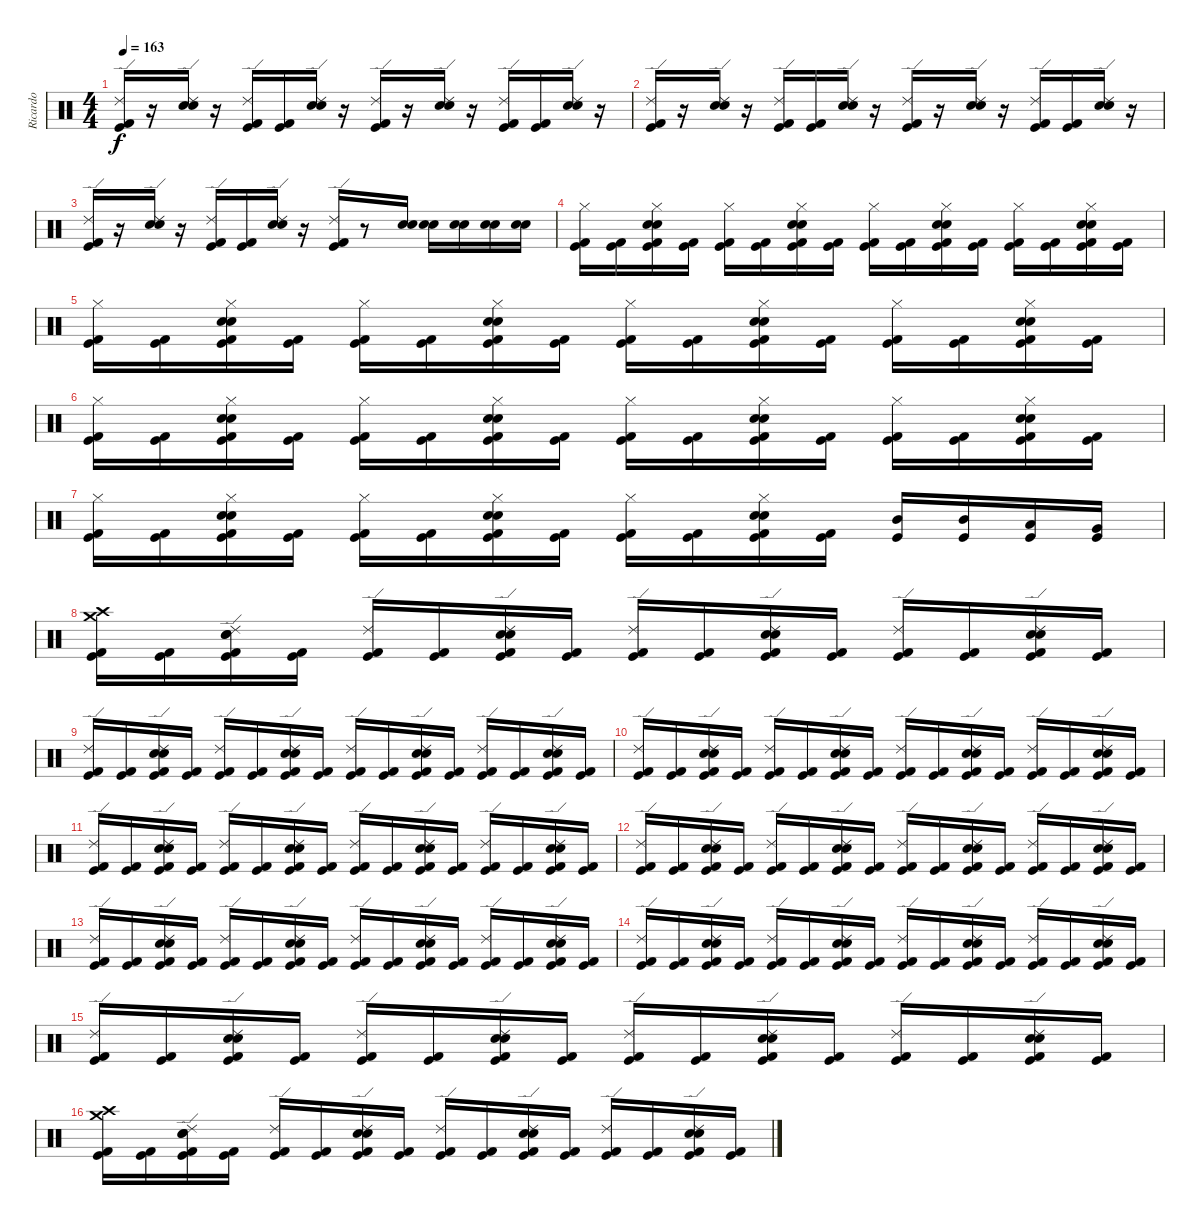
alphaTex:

\track ("Ricardo" "Ricardo") {instrument percussion}
\staff {score}
\articulation defaults
\ts (4 4)
\tempo 163
\clef neutral
\ks c
("Ride (edge) 2" "Kick (hit) 2" "Kick (hit)").16{dy f} r.16 ("Ride (edge) 2" "Electric Snare (hit)" "Snare (hit) 2").16 r.16 ("Ride (edge) 2" "Kick (hit)" "Kick (hit) 2").16 ("Kick (hit)" "Kick (hit) 2").16 ("Ride (edge) 2" "Electric Snare (hit)" "Snare (hit) 2").16 r.16 ("Ride (edge) 2" "Kick (hit)" "Kick (hit) 2").16 r.16 ("Ride (edge) 2" "Electric Snare (hit)" "Snare (hit) 2").16 r.16 ("Ride (edge) 2" "Kick (hit) 2" "Kick (hit)").16 ("Kick (hit) 2" "Kick (hit)").16 ("Ride (edge) 2" "Electric Snare (hit)" "Snare (hit) 2").16 r.16 |
("Ride (edge) 2" "Kick (hit) 2" "Kick (hit)").16 r.16 ("Ride (edge) 2" "Electric Snare (hit)" "Snare (hit) 2").16 r.16 ("Ride (edge) 2" "Kick (hit)" "Kick (hit) 2").16 ("Kick (hit)" "Kick (hit) 2").16 ("Ride (edge) 2" "Electric Snare (hit)" "Snare (hit) 2").16 r.16 ("Ride (edge) 2" "Kick (hit)" "Kick (hit) 2").16 r.16 ("Ride (edge) 2" "Electric Snare (hit)" "Snare (hit) 2").16 r.16 ("Ride (edge) 2" "Kick (hit) 2" "Kick (hit)").16 ("Kick (hit) 2" "Kick (hit)").16 ("Ride (edge) 2" "Electric Snare (hit)" "Snare (hit) 2").16 r.16 |
("Ride (edge) 2" "Kick (hit) 2" "Kick (hit)").16 r.16 ("Ride (edge) 2" "Electric Snare (hit)" "Snare (hit) 2").16 r.16 ("Ride (edge) 2" "Kick (hit)" "Kick (hit) 2").16 ("Kick (hit)" "Kick (hit) 2").16 ("Ride (edge) 2" "Electric Snare (hit)" "Snare (hit) 2").16 r.16 ("Ride (edge) 2" "Kick (hit)" "Kick (hit) 2").16 r.8 ("Electric Snare (hit)" "Snare (hit) 2").16 ("Snare (hit) 2" "Electric Snare (hit)").16 ("Electric Snare (hit)" "Snare (hit) 2").16 ("Electric Snare (hit)" "Snare (hit) 2").16 ("Electric Snare (hit)" "Snare (hit) 2").16 |
("Hi-Hat (closed)" "Kick (hit) 2" "Kick (hit)").16 ("Kick (hit) 2" "Kick (hit)").16 ("Electric Snare (hit)" "Snare (hit) 2" "Hi-Hat (closed)" "Kick (hit) 2" "Kick (hit)").16 ("Kick (hit) 2" "Kick (hit)").16 ("Hi-Hat (closed)" "Kick (hit) 2" "Kick (hit)").16 ("Kick (hit) 2" "Kick (hit)").16 ("Electric Snare (hit)" "Snare (hit) 2" "Hi-Hat (closed)" "Kick (hit) 2" "Kick (hit)").16 ("Kick (hit) 2" "Kick (hit)").16 ("Hi-Hat (closed)" "Kick (hit) 2" "Kick (hit)").16 ("Kick (hit) 2" "Kick (hit)").16 ("Electric Snare (hit)" "Snare (hit) 2" "Hi-Hat (closed)" "Kick (hit) 2" "Kick (hit)").16 ("Kick (hit) 2" "Kick (hit)").16 ("Hi-Hat (closed)" "Kick (hit) 2" "Kick (hit)").16 ("Kick (hit) 2" "Kick (hit)").16 ("Electric Snare (hit)" "Snare (hit) 2" "Hi-Hat (closed)" "Kick (hit) 2" "Kick (hit)").16 ("Kick (hit) 2" "Kick (hit)").16 |
("Hi-Hat (closed)" "Kick (hit) 2" "Kick (hit)").16 ("Kick (hit) 2" "Kick (hit)").16 ("Electric Snare (hit)" "Snare (hit) 2" "Hi-Hat (closed)" "Kick (hit) 2" "Kick (hit)").16 ("Kick (hit) 2" "Kick (hit)").16 ("Hi-Hat (closed)" "Kick (hit) 2" "Kick (hit)").16 ("Kick (hit) 2" "Kick (hit)").16 ("Electric Snare (hit)" "Snare (hit) 2" "Hi-Hat (closed)" "Kick (hit) 2" "Kick (hit)").16 ("Kick (hit) 2" "Kick (hit)").16 ("Hi-Hat (closed)" "Kick (hit) 2" "Kick (hit)").16 ("Kick (hit) 2" "Kick (hit)").16 ("Electric Snare (hit)" "Snare (hit) 2" "Hi-Hat (closed)" "Kick (hit) 2" "Kick (hit)").16 ("Kick (hit) 2" "Kick (hit)").16 ("Hi-Hat (closed)" "Kick (hit) 2" "Kick (hit)").16 ("Kick (hit) 2" "Kick (hit)").16 ("Electric Snare (hit)" "Snare (hit) 2" "Hi-Hat (closed)" "Kick (hit) 2" "Kick (hit)").16 ("Kick (hit) 2" "Kick (hit)").16 |
("Hi-Hat (closed)" "Kick (hit) 2" "Kick (hit)").16 ("Kick (hit) 2" "Kick (hit)").16 ("Electric Snare (hit)" "Snare (hit) 2" "Hi-Hat (closed)" "Kick (hit) 2" "Kick (hit)").16 ("Kick (hit) 2" "Kick (hit)").16 ("Hi-Hat (closed)" "Kick (hit) 2" "Kick (hit)").16 ("Kick (hit) 2" "Kick (hit)").16 ("Electric Snare (hit)" "Snare (hit) 2" "Hi-Hat (closed)" "Kick (hit) 2" "Kick (hit)").16 ("Kick (hit) 2" "Kick (hit)").16 ("Hi-Hat (closed)" "Kick (hit) 2" "Kick (hit)").16 ("Kick (hit) 2" "Kick (hit)").16 ("Electric Snare (hit)" "Snare (hit) 2" "Hi-Hat (closed)" "Kick (hit) 2" "Kick (hit)").16 ("Kick (hit) 2" "Kick (hit)").16 ("Hi-Hat (closed)" "Kick (hit) 2" "Kick (hit)").16 ("Kick (hit) 2" "Kick (hit)").16 ("Electric Snare (hit)" "Snare (hit) 2" "Hi-Hat (closed)" "Kick (hit) 2" "Kick (hit)").16 ("Kick (hit) 2" "Kick (hit)").16 |
("Hi-Hat (closed)" "Kick (hit) 2" "Kick (hit)").16 ("Kick (hit) 2" "Kick (hit)").16 ("Electric Snare (hit)" "Snare (hit) 2" "Hi-Hat (closed)" "Kick (hit) 2" "Kick (hit)").16 ("Kick (hit) 2" "Kick (hit)").16 ("Hi-Hat (closed)" "Kick (hit) 2" "Kick (hit)").16 ("Kick (hit) 2" "Kick (hit)").16 ("Electric Snare (hit)" "Snare (hit) 2" "Hi-Hat (closed)" "Kick (hit) 2" "Kick (hit)").16 ("Kick (hit) 2" "Kick (hit)").16 ("Hi-Hat (closed)" "Kick (hit) 2" "Kick (hit)").16 ("Kick (hit) 2" "Kick (hit)").16 ("Electric Snare (hit)" "Snare (hit) 2" "Hi-Hat (closed)" "Kick (hit) 2" "Kick (hit)").16 ("Kick (hit) 2" "Kick (hit)").16 ("Mid Tom (hit)" "Kick (hit)").16 ("Mid Tom (hit)" "Kick (hit)").16 ("Low Tom (hit)" "Kick (hit)").16 ("Very Low Tom (hit)" "Kick (hit)").16 |
("Crash high (hit)" "Crash medium (hit)" "Kick (hit) 2" "Kick (hit)").16 ("Kick (hit) 2" "Kick (hit)").16 ("Ride (edge) 2" "Electric Snare (hit)" "Snare (hit) 2" "Kick (hit) 2" "Kick (hit)").16 ("Kick (hit) 2" "Kick (hit)").16 ("Ride (edge) 2" "Kick (hit) 2" "Kick (hit)").16 ("Kick (hit) 2" "Kick (hit)").16 ("Ride (edge) 2" "Electric Snare (hit)" "Snare (hit) 2" "Kick (hit) 2" "Kick (hit)").16 ("Kick (hit) 2" "Kick (hit)").16 ("Ride (edge) 2" "Kick (hit) 2" "Kick (hit)").16 ("Kick (hit) 2" "Kick (hit)").16 ("Ride (edge) 2" "Electric Snare (hit)" "Snare (hit) 2" "Kick (hit) 2" "Kick (hit)").16 ("Kick (hit) 2" "Kick (hit)").16 ("Ride (edge) 2" "Kick (hit) 2" "Kick (hit)").16 ("Kick (hit) 2" "Kick (hit)").16 ("Ride (edge) 2" "Electric Snare (hit)" "Snare (hit) 2" "Kick (hit) 2" "Kick (hit)").16 ("Kick (hit) 2" "Kick (hit)").16 |
("Ride (edge) 2" "Kick (hit) 2" "Kick (hit)").16 ("Kick (hit) 2" "Kick (hit)").16 ("Ride (edge) 2" "Electric Snare (hit)" "Snare (hit) 2" "Kick (hit) 2" "Kick (hit)").16 ("Kick (hit) 2" "Kick (hit)").16 ("Ride (edge) 2" "Kick (hit) 2" "Kick (hit)").16 ("Kick (hit) 2" "Kick (hit)").16 ("Ride (edge) 2" "Electric Snare (hit)" "Snare (hit) 2" "Kick (hit) 2" "Kick (hit)").16 ("Kick (hit) 2" "Kick (hit)").16 ("Ride (edge) 2" "Kick (hit) 2" "Kick (hit)").16 ("Kick (hit) 2" "Kick (hit)").16 ("Ride (edge) 2" "Electric Snare (hit)" "Snare (hit) 2" "Kick (hit) 2" "Kick (hit)").16 ("Kick (hit) 2" "Kick (hit)").16 ("Ride (edge) 2" "Kick (hit) 2" "Kick (hit)").16 ("Kick (hit) 2" "Kick (hit)").16 ("Ride (edge) 2" "Electric Snare (hit)" "Snare (hit) 2" "Kick (hit) 2" "Kick (hit)").16 ("Kick (hit) 2" "Kick (hit)").16 |
("Ride (edge) 2" "Kick (hit) 2" "Kick (hit)").16 ("Kick (hit) 2" "Kick (hit)").16 ("Ride (edge) 2" "Electric Snare (hit)" "Snare (hit) 2" "Kick (hit) 2" "Kick (hit)").16 ("Kick (hit) 2" "Kick (hit)").16 ("Ride (edge) 2" "Kick (hit) 2" "Kick (hit)").16 ("Kick (hit) 2" "Kick (hit)").16 ("Ride (edge) 2" "Electric Snare (hit)" "Snare (hit) 2" "Kick (hit) 2" "Kick (hit)").16 ("Kick (hit) 2" "Kick (hit)").16 ("Ride (edge) 2" "Kick (hit) 2" "Kick (hit)").16 ("Kick (hit) 2" "Kick (hit)").16 ("Ride (edge) 2" "Electric Snare (hit)" "Snare (hit) 2" "Kick (hit) 2" "Kick (hit)").16 ("Kick (hit) 2" "Kick (hit)").16 ("Ride (edge) 2" "Kick (hit) 2" "Kick (hit)").16 ("Kick (hit) 2" "Kick (hit)").16 ("Ride (edge) 2" "Electric Snare (hit)" "Snare (hit) 2" "Kick (hit) 2" "Kick (hit)").16 ("Kick (hit) 2" "Kick (hit)").16 |
("Ride (edge) 2" "Kick (hit) 2" "Kick (hit)").16 ("Kick (hit) 2" "Kick (hit)").16 ("Ride (edge) 2" "Electric Snare (hit)" "Snare (hit) 2" "Kick (hit) 2" "Kick (hit)").16 ("Kick (hit) 2" "Kick (hit)").16 ("Ride (edge) 2" "Kick (hit) 2" "Kick (hit)").16 ("Kick (hit) 2" "Kick (hit)").16 ("Ride (edge) 2" "Electric Snare (hit)" "Snare (hit) 2" "Kick (hit) 2" "Kick (hit)").16 ("Kick (hit) 2" "Kick (hit)").16 ("Ride (edge) 2" "Kick (hit) 2" "Kick (hit)").16 ("Kick (hit) 2" "Kick (hit)").16 ("Ride (edge) 2" "Electric Snare (hit)" "Snare (hit) 2" "Kick (hit) 2" "Kick (hit)").16 ("Kick (hit) 2" "Kick (hit)").16 ("Ride (edge) 2" "Kick (hit) 2" "Kick (hit)").16 ("Kick (hit) 2" "Kick (hit)").16 ("Ride (edge) 2" "Electric Snare (hit)" "Snare (hit) 2" "Kick (hit) 2" "Kick (hit)").16 ("Kick (hit) 2" "Kick (hit)").16 |
("Ride (edge) 2" "Kick (hit) 2" "Kick (hit)").16 ("Kick (hit) 2" "Kick (hit)").16 ("Ride (edge) 2" "Electric Snare (hit)" "Snare (hit) 2" "Kick (hit) 2" "Kick (hit)").16 ("Kick (hit) 2" "Kick (hit)").16 ("Ride (edge) 2" "Kick (hit) 2" "Kick (hit)").16 ("Kick (hit) 2" "Kick (hit)").16 ("Ride (edge) 2" "Electric Snare (hit)" "Snare (hit) 2" "Kick (hit) 2" "Kick (hit)").16 ("Kick (hit) 2" "Kick (hit)").16 ("Ride (edge) 2" "Kick (hit) 2" "Kick (hit)").16 ("Kick (hit) 2" "Kick (hit)").16 ("Ride (edge) 2" "Electric Snare (hit)" "Snare (hit) 2" "Kick (hit) 2" "Kick (hit)").16 ("Kick (hit) 2" "Kick (hit)").16 ("Ride (edge) 2" "Kick (hit) 2" "Kick (hit)").16 ("Kick (hit) 2" "Kick (hit)").16 ("Ride (edge) 2" "Electric Snare (hit)" "Snare (hit) 2" "Kick (hit) 2" "Kick (hit)").16 ("Kick (hit) 2" "Kick (hit)").16 |
("Ride (edge) 2" "Kick (hit) 2" "Kick (hit)").16 ("Kick (hit) 2" "Kick (hit)").16 ("Ride (edge) 2" "Electric Snare (hit)" "Snare (hit) 2" "Kick (hit) 2" "Kick (hit)").16 ("Kick (hit) 2" "Kick (hit)").16 ("Ride (edge) 2" "Kick (hit) 2" "Kick (hit)").16 ("Kick (hit) 2" "Kick (hit)").16 ("Ride (edge) 2" "Electric Snare (hit)" "Snare (hit) 2" "Kick (hit) 2" "Kick (hit)").16 ("Kick (hit) 2" "Kick (hit)").16 ("Ride (edge) 2" "Kick (hit) 2" "Kick (hit)").16 ("Kick (hit) 2" "Kick (hit)").16 ("Ride (edge) 2" "Electric Snare (hit)" "Snare (hit) 2" "Kick (hit) 2" "Kick (hit)").16 ("Kick (hit) 2" "Kick (hit)").16 ("Ride (edge) 2" "Kick (hit) 2" "Kick (hit)").16 ("Kick (hit) 2" "Kick (hit)").16 ("Ride (edge) 2" "Electric Snare (hit)" "Snare (hit) 2" "Kick (hit) 2" "Kick (hit)").16 ("Kick (hit) 2" "Kick (hit)").16 |
("Ride (edge) 2" "Kick (hit) 2" "Kick (hit)").16 ("Kick (hit) 2" "Kick (hit)").16 ("Ride (edge) 2" "Electric Snare (hit)" "Snare (hit) 2" "Kick (hit) 2" "Kick (hit)").16 ("Kick (hit) 2" "Kick (hit)").16 ("Ride (edge) 2" "Kick (hit) 2" "Kick (hit)").16 ("Kick (hit) 2" "Kick (hit)").16 ("Ride (edge) 2" "Electric Snare (hit)" "Snare (hit) 2" "Kick (hit) 2" "Kick (hit)").16 ("Kick (hit) 2" "Kick (hit)").16 ("Ride (edge) 2" "Kick (hit) 2" "Kick (hit)").16 ("Kick (hit) 2" "Kick (hit)").16 ("Ride (edge) 2" "Electric Snare (hit)" "Snare (hit) 2" "Kick (hit) 2" "Kick (hit)").16 ("Kick (hit) 2" "Kick (hit)").16 ("Ride (edge) 2" "Kick (hit) 2" "Kick (hit)").16 ("Kick (hit) 2" "Kick (hit)").16 ("Ride (edge) 2" "Electric Snare (hit)" "Snare (hit) 2" "Kick (hit) 2" "Kick (hit)").16 ("Kick (hit) 2" "Kick (hit)").16 |
("Ride (edge) 2" "Kick (hit) 2" "Kick (hit)").16 ("Kick (hit) 2" "Kick (hit)").16 ("Ride (edge) 2" "Electric Snare (hit)" "Snare (hit) 2" "Kick (hit) 2" "Kick (hit)").16 ("Kick (hit) 2" "Kick (hit)").16 ("Ride (edge) 2" "Kick (hit) 2" "Kick (hit)").16 ("Kick (hit) 2" "Kick (hit)").16 ("Ride (edge) 2" "Electric Snare (hit)" "Snare (hit) 2" "Kick (hit) 2" "Kick (hit)").16 ("Kick (hit) 2" "Kick (hit)").16 ("Ride (edge) 2" "Kick (hit) 2" "Kick (hit)").16 ("Kick (hit) 2" "Kick (hit)").16 ("Ride (edge) 2" "Electric Snare (hit)" "Snare (hit) 2" "Kick (hit) 2" "Kick (hit)").16 ("Kick (hit) 2" "Kick (hit)").16 ("Ride (edge) 2" "Kick (hit) 2" "Kick (hit)").16 ("Kick (hit) 2" "Kick (hit)").16 ("Ride (edge) 2" "Electric Snare (hit)" "Snare (hit) 2" "Kick (hit) 2" "Kick (hit)").16 ("Kick (hit) 2" "Kick (hit)").16 |
("Crash high (hit)" "Crash medium (hit)" "Kick (hit) 2" "Kick (hit)").16 ("Kick (hit) 2" "Kick (hit)").16 ("Ride (edge) 2" "Electric Snare (hit)" "Snare (hit) 2" "Kick (hit) 2" "Kick (hit)").16 ("Kick (hit) 2" "Kick (hit)").16 ("Ride (edge) 2" "Kick (hit) 2" "Kick (hit)").16 ("Kick (hit) 2" "Kick (hit)").16 ("Ride (edge) 2" "Electric Snare (hit)" "Snare (hit) 2" "Kick (hit) 2" "Kick (hit)").16 ("Kick (hit) 2" "Kick (hit)").16 ("Ride (edge) 2" "Kick (hit) 2" "Kick (hit)").16 ("Kick (hit) 2" "Kick (hit)").16 ("Ride (edge) 2" "Electric Snare (hit)" "Snare (hit) 2" "Kick (hit) 2" "Kick (hit)").16 ("Kick (hit) 2" "Kick (hit)").16 ("Ride (edge) 2" "Kick (hit) 2" "Kick (hit)").16 ("Kick (hit) 2" "Kick (hit)").16 ("Ride (edge) 2" "Electric Snare (hit)" "Snare (hit) 2" "Kick (hit) 2" "Kick (hit)").16 ("Kick (hit) 2" "Kick (hit)").16
